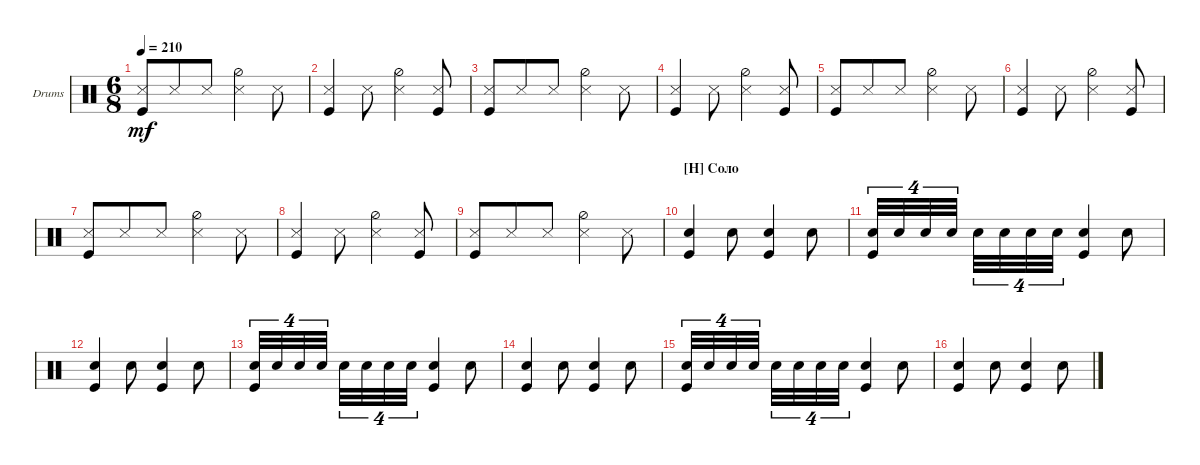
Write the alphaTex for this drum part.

\defaultSystemsLayout 4
\bracketExtendMode nobrackets
\firstSystemTrackNameOrientation horizontal
\otherSystemsTrackNameOrientation horizontal
\track ("Drumkit" "Drums") {instrument percussion}
\staff {score}
\articulation defaults
\ts (6 8)
\tempo 210
\clef neutral
\scale
0.333333
\ks c
("Kick (hit)" "Snare (side stick) 3").8{dy mf} "Snare (side stick) 3".8 "Snare (side stick) 3".8 ("Snare (side stick) 3" "Hi-Hat (half)").4 "Snare (side stick) 3".8 |
\scale
0.333333 ("Kick (hit)" "Snare (side stick) 3").4 "Snare (side stick) 3".8 ("Snare (side stick) 3" "Hi-Hat (half)").4 ("Kick (hit)" "Snare (side stick) 3").8 |
\scale
0.333333 ("Kick (hit)" "Snare (side stick) 3").8 "Snare (side stick) 3".8 "Snare (side stick) 3".8 ("Snare (side stick) 3" "Hi-Hat (half)").4 "Snare (side stick) 3".8 |
\scale
0.333333 ("Kick (hit)" "Snare (side stick) 3").4 "Snare (side stick) 3".8 ("Snare (side stick) 3" "Hi-Hat (half)").4 ("Kick (hit)" "Snare (side stick) 3").8 |
\scale
0.333333 ("Kick (hit)" "Snare (side stick) 3").8 "Snare (side stick) 3".8 "Snare (side stick) 3".8 ("Snare (side stick) 3" "Hi-Hat (half)").4 "Snare (side stick) 3".8 |
\scale
0.333333 ("Kick (hit)" "Snare (side stick) 3").4 "Snare (side stick) 3".8 ("Snare (side stick) 3" "Hi-Hat (half)").4 ("Kick (hit)" "Snare (side stick) 3").8 |
\scale
0.333333 ("Kick (hit)" "Snare (side stick) 3").8 "Snare (side stick) 3".8 "Snare (side stick) 3".8 ("Snare (side stick) 3" "Hi-Hat (half)").4 "Snare (side stick) 3".8 |
\scale
0.333333 ("Kick (hit)" "Snare (side stick) 3").4 "Snare (side stick) 3".8 ("Snare (side stick) 3" "Hi-Hat (half)").4 ("Kick (hit)" "Snare (side stick) 3").8 |
\scale
0.333333 ("Kick (hit)" "Snare (side stick) 3").8 "Snare (side stick) 3".8 "Snare (side stick) 3".8 ("Snare (side stick) 3" "Hi-Hat (half)").4 "Snare (side stick) 3".8 |
\section ("H" "Соло")
\scale
0.333333 ("Kick (hit)" "Snare (hit) 2").4 "Snare (hit) 2".8 ("Kick (hit)" "Snare (hit) 2").4 "Snare (hit) 2".8 |
\scale
0.333333 ("Kick (hit)" "Snare (hit) 2").32{tu (4 6)} "Snare (hit) 2".32{tu (4 6)} "Snare (hit) 2".32{tu (4 6)} "Snare (hit) 2".32{tu (4 6)} "Snare (hit) 2".32{tu (4 6)} "Snare (hit) 2".32{tu (4 6)} "Snare (hit) 2".32{tu (4 6)} "Snare (hit) 2".32{tu (4 6)} ("Kick (hit)" "Snare (hit) 2").4 "Snare (hit) 2".8 |
\scale
0.333333 ("Kick (hit)" "Snare (hit) 2").4 "Snare (hit) 2".8 ("Kick (hit)" "Snare (hit) 2").4 "Snare (hit) 2".8 |
\scale
0.333333 ("Kick (hit)" "Snare (hit) 2").32{tu (4 6)} "Snare (hit) 2".32{tu (4 6)} "Snare (hit) 2".32{tu (4 6)} "Snare (hit) 2".32{tu (4 6)} "Snare (hit) 2".32{tu (4 6)} "Snare (hit) 2".32{tu (4 6)} "Snare (hit) 2".32{tu (4 6)} "Snare (hit) 2".32{tu (4 6)} ("Kick (hit)" "Snare (hit) 2").4 "Snare (hit) 2".8 |
\scale
0.333333 ("Kick (hit)" "Snare (hit) 2").4 "Snare (hit) 2".8 ("Kick (hit)" "Snare (hit) 2").4 "Snare (hit) 2".8 |
\scale
0.333333 ("Kick (hit)" "Snare (hit) 2").32{tu (4 6)} "Snare (hit) 2".32{tu (4 6)} "Snare (hit) 2".32{tu (4 6)} "Snare (hit) 2".32{tu (4 6)} "Snare (hit) 2".32{tu (4 6)} "Snare (hit) 2".32{tu (4 6)} "Snare (hit) 2".32{tu (4 6)} "Snare (hit) 2".32{tu (4 6)} ("Kick (hit)" "Snare (hit) 2").4 "Snare (hit) 2".8 |
\scale
0.333333 ("Kick (hit)" "Snare (hit) 2").4 "Snare (hit) 2".8 ("Kick (hit)" "Snare (hit) 2").4 "Snare (hit) 2".8
